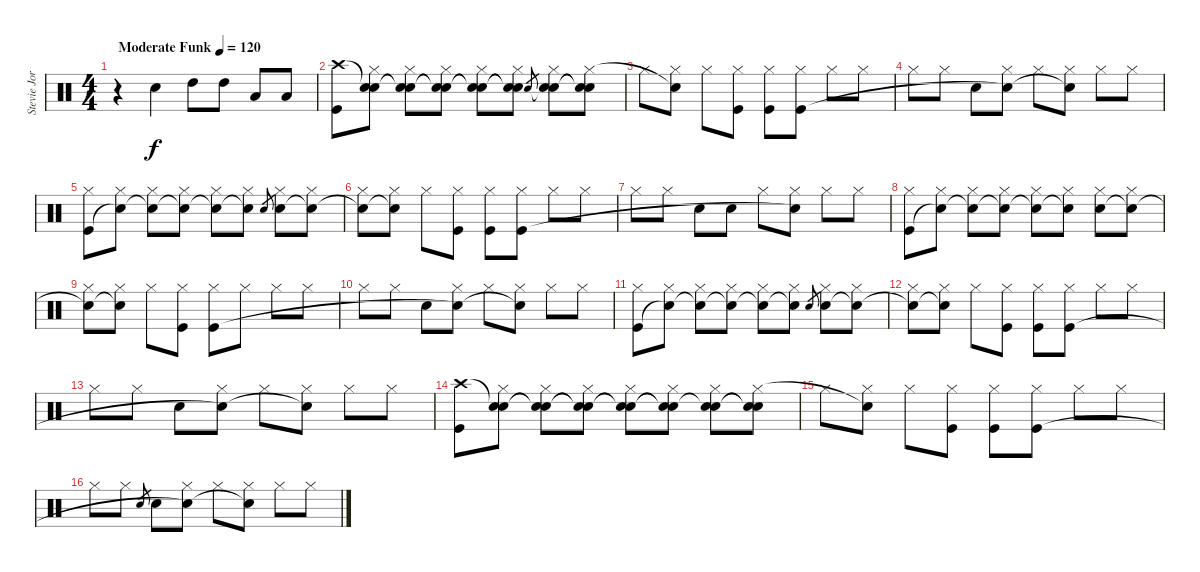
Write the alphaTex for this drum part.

\track ("Stevie Jordan" "Stevie Jor") {instrument percussion}
\staff {score}
\articulation defaults
\ts (4 4)
\tempo (120 "Moderate Funk")
\clef neutral
\ks c
r.4{dy f} "Snare (hit) 2".4 "High Tom (hit)".8 "High Tom (hit)".8 "Low Tom (hit)".8 "Low Tom (hit)".8 |
("Crash high (hit)" "Kick (hit)").8 ("Snare (hit)"{t} "Hi-Hat (closed)" "Snare (hit)").8 ("Snare (hit)"{t} "Hi-Hat (closed)" "Snare (hit)"{t}).8 ("Snare (hit)"{t} "Hi-Hat (closed)" "Snare (hit)"{t}).8 ("Snare (hit)"{t} "Hi-Hat (closed)" "Snare (hit)"{t}).8 ("Snare (hit)"{t} "Hi-Hat (closed)" "Snare (hit)"{t}).8 "Snare (hit) 2".8{gr} ("Snare (hit)"{t} "Hi-Hat (closed)" "Snare (hit) 2").8 ("Snare (hit)"{t} "Hi-Hat (closed)" "Snare (hit)"{t}).8 |
"Hi-Hat (closed)".8 ("Hi-Hat (closed)" "Snare (hit)"{t}).8 "Hi-Hat (closed)".8 ("Hi-Hat (closed)" "Kick (hit)").8 ("Hi-Hat (closed)" "Kick (hit)").8 ("Hi-Hat (closed)" "Kick (hit)").8 "Hi-Hat (closed)".8 "Hi-Hat (closed)".8 |
"Hi-Hat (closed)".8 "Hi-Hat (closed)".8 "Snare (hit) 2".8 ("Hi-Hat (closed)" "Snare (hit)"{t}).8 "Hi-Hat (closed)".8 ("Hi-Hat (closed)" "Snare (hit)"{t}).8 "Hi-Hat (closed)".8 "Hi-Hat (closed)".8 |
("Hi-Hat (closed)" "Kick (hit)").8 ("Hi-Hat (closed)" "Snare (hit)"{t}).8 ("Hi-Hat (closed)" "Snare (hit)"{t}).8 ("Hi-Hat (closed)" "Snare (hit)"{t}).8 ("Hi-Hat (closed)" "Snare (hit)"{t}).8 ("Hi-Hat (closed)" "Snare (hit)"{t}).8 "Snare (hit) 2".8{gr} ("Hi-Hat (closed)" "Snare (hit) 2").8 ("Hi-Hat (closed)" "Snare (hit)"{t}).8 |
("Hi-Hat (closed)" "Snare (hit)"{t}).8 ("Hi-Hat (closed)" "Snare (hit)"{t}).8 "Hi-Hat (closed)".8 ("Hi-Hat (closed)" "Kick (hit)").8 ("Hi-Hat (closed)" "Kick (hit)").8 ("Hi-Hat (closed)" "Kick (hit)").8 "Hi-Hat (closed)".8 "Hi-Hat (closed)".8 |
"Hi-Hat (closed)".8 "Hi-Hat (closed)".8 "Snare (hit) 2".8 "Snare (hit) 2".8 "Hi-Hat (closed)".8 ("Hi-Hat (closed)" "Snare (hit)"{t}).8 "Hi-Hat (closed)".8 "Hi-Hat (closed)".8 |
("Hi-Hat (closed)" "Kick (hit)").8 ("Hi-Hat (closed)" "Snare (hit)"{t}).8 ("Hi-Hat (closed)" "Snare (hit)"{t}).8 ("Hi-Hat (closed)" "Snare (hit)"{t}).8 ("Hi-Hat (closed)" "Snare (hit)"{t}).8 ("Hi-Hat (closed)" "Snare (hit)"{t}).8 ("Hi-Hat (closed)" "Snare (hit) 2").8 ("Hi-Hat (closed)" "Snare (hit)"{t}).8 |
("Hi-Hat (closed)" "Snare (hit)"{t}).8 ("Hi-Hat (closed)" "Snare (hit)"{t}).8 "Hi-Hat (closed)".8 ("Hi-Hat (closed)" "Kick (hit)").8 ("Hi-Hat (closed)" "Kick (hit)").8 "Hi-Hat (closed)".8 "Hi-Hat (closed)".8 "Hi-Hat (closed)".8 |
"Hi-Hat (closed)".8 "Hi-Hat (closed)".8 "Snare (hit) 2".8 ("Hi-Hat (closed)" "Snare (hit)"{t}).8 "Hi-Hat (closed)".8 ("Hi-Hat (closed)" "Snare (hit)"{t}).8 "Hi-Hat (closed)".8 "Hi-Hat (closed)".8 |
("Hi-Hat (closed)" "Kick (hit)").8 ("Hi-Hat (closed)" "Snare (hit)"{t}).8 ("Hi-Hat (closed)" "Snare (hit)"{t}).8 ("Hi-Hat (closed)" "Snare (hit)"{t}).8 ("Hi-Hat (closed)" "Snare (hit)"{t}).8 ("Hi-Hat (closed)" "Snare (hit)"{t}).8 "Snare (hit) 2".8{gr} ("Hi-Hat (closed)" "Snare (hit) 2").8 ("Hi-Hat (closed)" "Snare (hit)"{t}).8 |
("Hi-Hat (closed)" "Snare (hit)"{t}).8 ("Hi-Hat (closed)" "Snare (hit)"{t}).8 "Hi-Hat (closed)".8 ("Hi-Hat (closed)" "Kick (hit)").8 ("Hi-Hat (closed)" "Kick (hit)").8 ("Hi-Hat (closed)" "Kick (hit)").8 "Hi-Hat (closed)".8 "Hi-Hat (closed)".8 |
"Hi-Hat (closed)".8 "Hi-Hat (closed)".8 "Snare (hit) 2".8 ("Hi-Hat (closed)" "Snare (hit)"{t}).8 "Hi-Hat (closed)".8 ("Hi-Hat (closed)" "Snare (hit)"{t}).8 "Hi-Hat (closed)".8 "Hi-Hat (closed)".8 |
("Crash high (hit)" "Kick (hit)").8 ("Snare (hit)"{t} "Hi-Hat (closed)" "Snare (hit)").8 ("Snare (hit)"{t} "Hi-Hat (closed)" "Snare (hit)"{t}).8 ("Snare (hit)"{t} "Hi-Hat (closed)" "Snare (hit)"{t}).8 ("Snare (hit)"{t} "Hi-Hat (closed)" "Snare (hit)"{t}).8 ("Snare (hit)"{t} "Hi-Hat (closed)" "Snare (hit)"{t}).8 ("Snare (hit)"{t} "Hi-Hat (closed)" "Snare (hit) 2").8 ("Snare (hit)"{t} "Hi-Hat (closed)" "Snare (hit)"{t}).8 |
"Hi-Hat (closed)".8 ("Hi-Hat (closed)" "Snare (hit)"{t}).8 "Hi-Hat (closed)".8 ("Hi-Hat (closed)" "Kick (hit)").8 ("Hi-Hat (closed)" "Kick (hit)").8 ("Hi-Hat (closed)" "Kick (hit)").8 "Hi-Hat (closed)".8 "Hi-Hat (closed)".8 |
"Hi-Hat (closed)".8 "Hi-Hat (closed)".8 "Snare (hit) 2".8{gr} "Snare (hit) 2".8 ("Hi-Hat (closed)" "Snare (hit)"{t}).8 "Hi-Hat (closed)".8 ("Hi-Hat (closed)" "Snare (hit)"{t}).8 "Hi-Hat (closed)".8 "Hi-Hat (closed)".8
